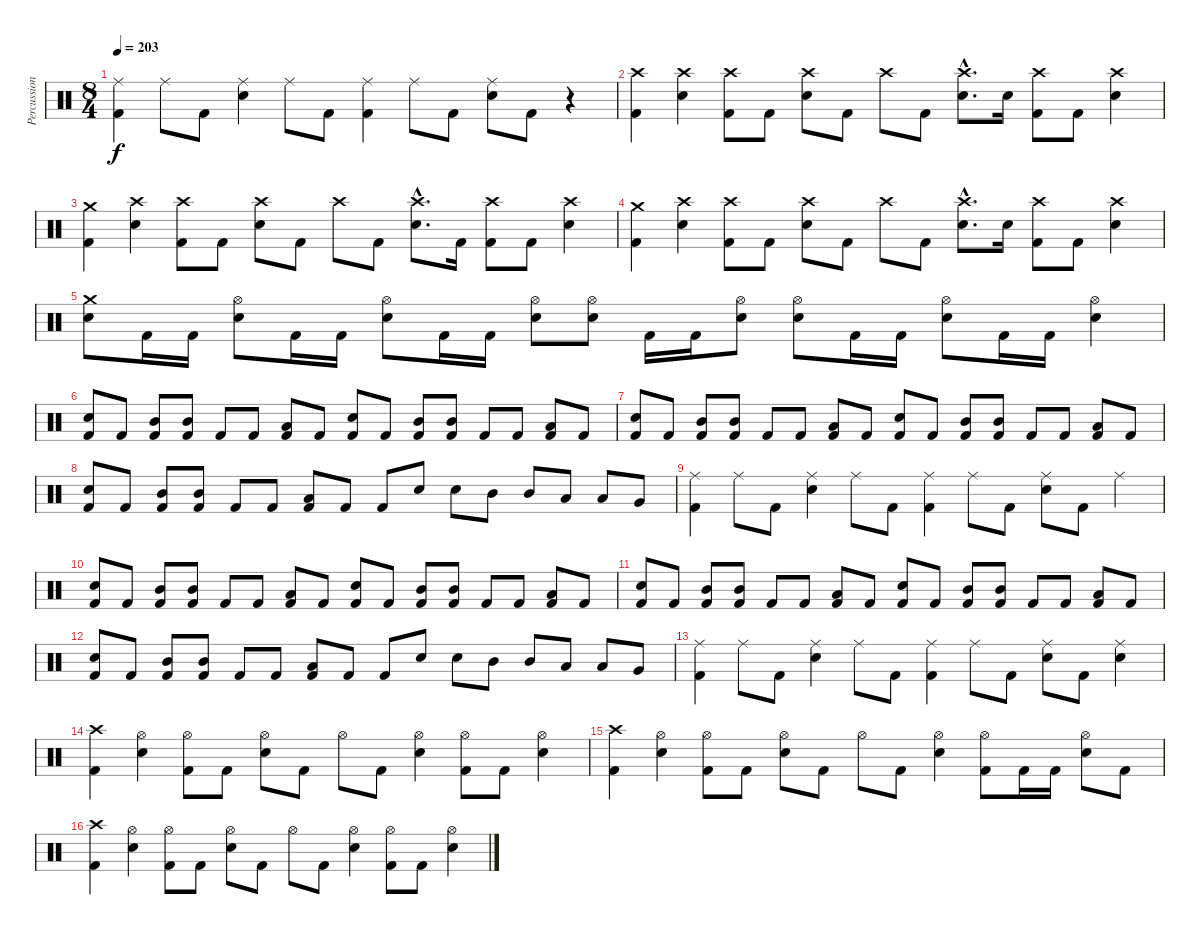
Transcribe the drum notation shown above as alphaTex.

\track ("Percussion" "Percussion") {instrument percussion}
\staff {score}
\articulation defaults
\ts (8 4)
\tempo 203
\clef neutral
\ks c
("Ride (middle)" "Kick (hit) 2").4{dy f} "Ride (middle)".8 "Kick (hit) 2".8 ("Ride (middle)" "Snare (hit) 2").4 "Ride (middle)".8 "Kick (hit) 2".8 ("Ride (middle)" "Kick (hit) 2").4 "Ride (middle)".8 "Kick (hit) 2".8 ("Ride (middle)" "Snare (hit) 2").8 "Kick (hit) 2".8 r.4 |
("Crash high (hit)" "Kick (hit) 2").4 ("Crash high (hit)" "Snare (hit) 2").4 ("Crash high (hit)" "Kick (hit) 2").8 "Kick (hit) 2".8 ("Crash high (hit)" "Snare (hit) 2").8 "Kick (hit) 2".8 "Crash high (hit)".8 "Kick (hit) 2".8 ("Crash high (hit)"{hac} "Snare (hit) 2"{hac}).8{d} "Snare (hit) 2".16 ("Crash high (hit)" "Kick (hit) 2").8 "Kick (hit) 2".8 ("Crash high (hit)" "Snare (hit) 2").4 |
("Crash medium (hit)" "Kick (hit) 2").4 ("Crash high (hit)" "Snare (hit) 2").4 ("Crash high (hit)" "Kick (hit) 2").8 "Kick (hit) 2".8 ("Crash high (hit)" "Snare (hit) 2").8 "Kick (hit) 2".8 "Crash high (hit)".8 "Kick (hit) 2".8 ("Crash high (hit)"{hac} "Snare (hit) 2"{hac}).8{d} "Kick (hit) 2".16 ("Crash high (hit)" "Kick (hit) 2").8 "Kick (hit) 2".8 ("Crash high (hit)" "Snare (hit) 2").4 |
("Crash medium (hit)" "Kick (hit) 2").4 ("Crash high (hit)" "Snare (hit) 2").4 ("Crash high (hit)" "Kick (hit) 2").8 "Kick (hit) 2".8 ("Crash high (hit)" "Snare (hit) 2").8 "Kick (hit) 2".8 "Crash high (hit)".8 "Kick (hit) 2".8 ("Crash high (hit)"{hac} "Snare (hit) 2"{hac}).8{d} "Snare (hit) 2".16 ("Crash high (hit)" "Kick (hit) 2").8 "Kick (hit) 2".8 ("Crash high (hit)" "Snare (hit) 2").4 |
("Crash medium (hit)" "Snare (hit) 2").8 "Kick (hit) 2".16 "Kick (hit) 2".16 ("Hi-Hat (open)" "Snare (hit) 2").8 "Kick (hit) 2".16 "Kick (hit) 2".16 ("Hi-Hat (open)" "Snare (hit) 2").8 "Kick (hit) 2".16 "Kick (hit) 2".16 ("Hi-Hat (open)" "Snare (hit) 2").8 ("Hi-Hat (open)" "Snare (hit) 2").8 "Kick (hit) 2".16 "Kick (hit) 2".16 ("Hi-Hat (open)" "Snare (hit) 2").8 ("Hi-Hat (open)" "Snare (hit) 2").8 "Kick (hit) 2".16 "Kick (hit) 2".16 ("Hi-Hat (open)" "Snare (hit) 2").8 "Kick (hit) 2".16 "Kick (hit) 2".16 ("Hi-Hat (open)" "Snare (hit) 2").4 |
("Snare (hit) 2" "Kick (hit) 2").8 "Kick (hit) 2".8 ("Mid Tom (hit)" "Kick (hit) 2").8 ("Mid Tom (hit)" "Kick (hit) 2").8 "Kick (hit) 2".8 "Kick (hit) 2".8 ("Low Tom (hit)" "Kick (hit) 2").8 "Kick (hit) 2".8 ("Snare (hit) 2" "Kick (hit) 2").8 "Kick (hit) 2".8 ("Mid Tom (hit)" "Kick (hit) 2").8 ("Mid Tom (hit)" "Kick (hit) 2").8 "Kick (hit) 2".8 "Kick (hit) 2".8 ("Low Tom (hit)" "Kick (hit) 2").8 "Kick (hit) 2".8 |
("Snare (hit) 2" "Kick (hit) 2").8 "Kick (hit) 2".8 ("Mid Tom (hit)" "Kick (hit) 2").8 ("Mid Tom (hit)" "Kick (hit) 2").8 "Kick (hit) 2".8 "Kick (hit) 2".8 ("Low Tom (hit)" "Kick (hit) 2").8 "Kick (hit) 2".8 ("Snare (hit) 2" "Kick (hit) 2").8 "Kick (hit) 2".8 ("Mid Tom (hit)" "Kick (hit) 2").8 ("Mid Tom (hit)" "Kick (hit) 2").8 "Kick (hit) 2".8 "Kick (hit) 2".8 ("Low Tom (hit)" "Kick (hit) 2").8 "Kick (hit) 2".8 |
("Snare (hit) 2" "Kick (hit) 2").8 "Kick (hit) 2".8 ("Mid Tom (hit)" "Kick (hit) 2").8 ("Mid Tom (hit)" "Kick (hit) 2").8 "Kick (hit) 2".8 "Kick (hit) 2".8 ("Low Tom (hit)" "Kick (hit) 2").8 "Kick (hit) 2".8 "Kick (hit) 2".8 "Snare (hit) 2".8 "Snare (hit) 2".8 "Mid Tom (hit)".8 "Mid Tom (hit)".8 "Low Tom (hit)".8 "Low Tom (hit)".8 "Very Low Tom (hit)".8 |
("Ride (middle)" "Kick (hit) 2").4 "Ride (middle)".8 "Kick (hit) 2".8 ("Ride (middle)" "Snare (hit) 2").4 "Ride (middle)".8 "Kick (hit) 2".8 ("Ride (middle)" "Kick (hit) 2").4 "Ride (middle)".8 "Kick (hit) 2".8 ("Ride (middle)" "Snare (hit) 2").8 "Kick (hit) 2".8 "Ride (middle)".4 |
("Snare (hit) 2" "Kick (hit) 2").8 "Kick (hit) 2".8 ("Mid Tom (hit)" "Kick (hit) 2").8 ("Mid Tom (hit)" "Kick (hit) 2").8 "Kick (hit) 2".8 "Kick (hit) 2".8 ("Low Tom (hit)" "Kick (hit) 2").8 "Kick (hit) 2".8 ("Snare (hit) 2" "Kick (hit) 2").8 "Kick (hit) 2".8 ("Mid Tom (hit)" "Kick (hit) 2").8 ("Mid Tom (hit)" "Kick (hit) 2").8 "Kick (hit) 2".8 "Kick (hit) 2".8 ("Low Tom (hit)" "Kick (hit) 2").8 "Kick (hit) 2".8 |
("Snare (hit) 2" "Kick (hit) 2").8 "Kick (hit) 2".8 ("Mid Tom (hit)" "Kick (hit) 2").8 ("Mid Tom (hit)" "Kick (hit) 2").8 "Kick (hit) 2".8 "Kick (hit) 2".8 ("Low Tom (hit)" "Kick (hit) 2").8 "Kick (hit) 2".8 ("Snare (hit) 2" "Kick (hit) 2").8 "Kick (hit) 2".8 ("Mid Tom (hit)" "Kick (hit) 2").8 ("Mid Tom (hit)" "Kick (hit) 2").8 "Kick (hit) 2".8 "Kick (hit) 2".8 ("Low Tom (hit)" "Kick (hit) 2").8 "Kick (hit) 2".8 |
("Snare (hit) 2" "Kick (hit) 2").8 "Kick (hit) 2".8 ("Mid Tom (hit)" "Kick (hit) 2").8 ("Mid Tom (hit)" "Kick (hit) 2").8 "Kick (hit) 2".8 "Kick (hit) 2".8 ("Low Tom (hit)" "Kick (hit) 2").8 "Kick (hit) 2".8 "Kick (hit) 2".8 "Snare (hit) 2".8 "Snare (hit) 2".8 "Mid Tom (hit)".8 "Mid Tom (hit)".8 "Low Tom (hit)".8 "Low Tom (hit)".8 "Very Low Tom (hit)".8 |
("Ride (middle)" "Kick (hit) 2").4 "Ride (middle)".8 "Kick (hit) 2".8 ("Ride (middle)" "Snare (hit) 2").4 "Ride (middle)".8 "Kick (hit) 2".8 ("Ride (middle)" "Kick (hit) 2").4 "Ride (middle)".8 "Kick (hit) 2".8 ("Ride (middle)" "Snare (hit) 2").8 "Kick (hit) 2".8 ("Ride (middle)" "Snare (hit) 2").4 |
("Crash high (hit)" "Kick (hit) 2").4 ("Hi-Hat (open)" "Snare (hit) 2").4 ("Hi-Hat (open)" "Kick (hit) 2").8 "Kick (hit) 2".8 ("Hi-Hat (open)" "Snare (hit) 2").8 "Kick (hit) 2".8 "Hi-Hat (open)".8 "Kick (hit) 2".8 ("Hi-Hat (open)" "Snare (hit) 2").4 ("Hi-Hat (open)" "Kick (hit) 2").8 "Kick (hit) 2".8 ("Hi-Hat (open)" "Snare (hit) 2").4 |
("Crash high (hit)" "Kick (hit) 2").4 ("Hi-Hat (open)" "Snare (hit) 2").4 ("Hi-Hat (open)" "Kick (hit) 2").8 "Kick (hit) 2".8 ("Hi-Hat (open)" "Snare (hit) 2").8 "Kick (hit) 2".8 "Hi-Hat (open)".8 "Kick (hit) 2".8 ("Hi-Hat (open)" "Snare (hit) 2").4 ("Hi-Hat (open)" "Kick (hit) 2").8 "Kick (hit) 2".16 "Kick (hit) 2".16 ("Hi-Hat (open)" "Snare (hit) 2").8 "Kick (hit) 2".8 |
("Crash high (hit)" "Kick (hit) 2").4 ("Hi-Hat (open)" "Snare (hit) 2").4 ("Hi-Hat (open)" "Kick (hit) 2").8 "Kick (hit) 2".8 ("Hi-Hat (open)" "Snare (hit) 2").8 "Kick (hit) 2".8 "Hi-Hat (open)".8 "Kick (hit) 2".8 ("Hi-Hat (open)" "Snare (hit) 2").4 ("Hi-Hat (open)" "Kick (hit) 2").8 "Kick (hit) 2".8 ("Hi-Hat (open)" "Snare (hit) 2").4
